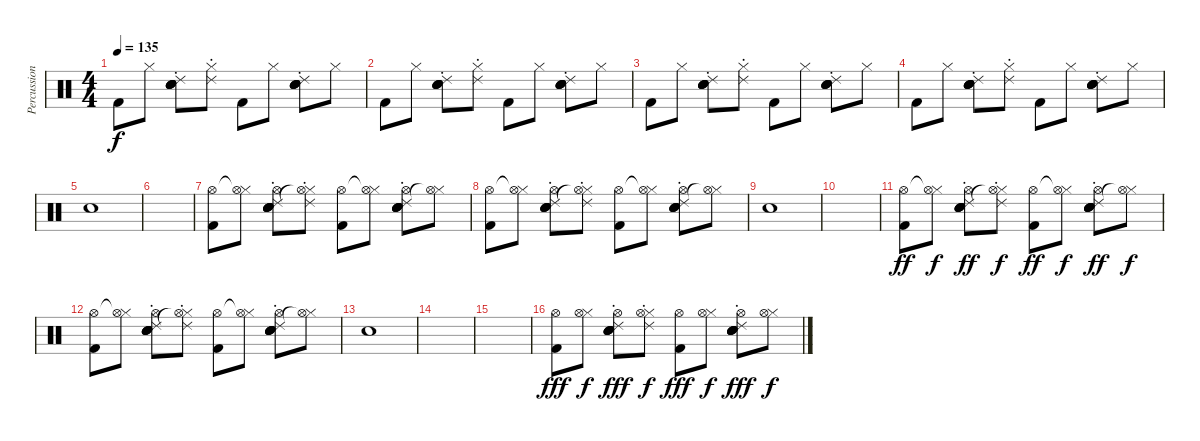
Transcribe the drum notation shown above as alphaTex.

\track ("Percussion" "Percussion") {instrument percussion}
\staff {score}
\articulation defaults
\ts (4 4)
\tempo 135
\clef neutral
\ks c "Kick (hit) 2".8{dy f} "Hi-Hat (closed)".8
("Snare (hit) 2" "Ride (choke) 2" "Hand Clap (hit)" "Hand Clap (hit)" "Hand Clap (hit)").8 ("Hi-Hat (closed)" "Ride (choke) 2").8 "Kick (hit) 2".8 "Hi-Hat (closed)".8 ("Snare (hit) 2" "Ride (choke) 2" "Hand Clap (hit)" "Hand Clap (hit)" "Hand Clap (hit)").8 "Hi-Hat (closed)".8 |
"Kick (hit) 2".8 "Hi-Hat (closed)".8 ("Snare (hit) 2" "Ride (choke) 2" "Hand Clap (hit)" "Hand Clap (hit)" "Hand Clap (hit)").8 ("Hi-Hat (closed)" "Ride (choke) 2").8 "Kick (hit) 2".8 "Hi-Hat (closed)".8 ("Snare (hit) 2" "Ride (choke) 2" "Hand Clap (hit)" "Hand Clap (hit)" "Hand Clap (hit)").8 "Hi-Hat (closed)".8 |
"Kick (hit) 2".8 "Hi-Hat (closed)".8 ("Snare (hit) 2" "Ride (choke) 2" "Hand Clap (hit)" "Hand Clap (hit)" "Hand Clap (hit)").8 ("Hi-Hat (closed)" "Ride (choke) 2").8 "Kick (hit) 2".8 "Hi-Hat (closed)".8 ("Snare (hit) 2" "Ride (choke) 2" "Hand Clap (hit)" "Hand Clap (hit)" "Hand Clap (hit)").8 "Hi-Hat (closed)".8 |
"Kick (hit) 2".8 "Hi-Hat (closed)".8 ("Snare (hit) 2" "Ride (choke) 2" "Hand Clap (hit)" "Hand Clap (hit)" "Hand Clap (hit)").8 ("Hi-Hat (closed)" "Ride (choke) 2").8 "Kick (hit) 2".8 "Hi-Hat (closed)".8 ("Snare (hit) 2" "Ride (choke) 2" "Hand Clap (hit)" "Hand Clap (hit)" "Hand Clap (hit)").8 "Hi-Hat (closed)".8 |
"Snare (hit) 2".1 |
|
("Kick (hit) 2" "Hi-Hat (open)").8 ("Hi-Hat (closed)" "Hi-Hat (open)"{t}).8 ("Snare (hit) 2" "Ride (choke) 2" "Hand Clap (hit)" "Hand Clap (hit)" "Hand Clap (hit)" "Hi-Hat (open)").8 ("Hi-Hat (closed)" "Ride (choke) 2" "Hi-Hat (open)"{t}).8 ("Kick (hit) 2" "Hi-Hat (open)").8 ("Hi-Hat (closed)" "Hi-Hat (open)"{t}).8 ("Snare (hit) 2" "Ride (choke) 2" "Hand Clap (hit)" "Hand Clap (hit)" "Hand Clap (hit)" "Hi-Hat (open)").8 ("Hi-Hat (closed)" "Hi-Hat (open)"{t}).8 |
("Kick (hit) 2" "Hi-Hat (open)").8 ("Hi-Hat (closed)" "Hi-Hat (open)"{t}).8 ("Snare (hit) 2" "Ride (choke) 2" "Hand Clap (hit)" "Hand Clap (hit)" "Hand Clap (hit)" "Hi-Hat (open)").8 ("Hi-Hat (closed)" "Ride (choke) 2" "Hi-Hat (open)"{t}).8 ("Kick (hit) 2" "Hi-Hat (open)").8 ("Hi-Hat (closed)" "Hi-Hat (open)"{t}).8 ("Snare (hit) 2" "Ride (choke) 2" "Hand Clap (hit)" "Hand Clap (hit)" "Hand Clap (hit)" "Hi-Hat (open)").8 ("Hi-Hat (closed)" "Hi-Hat (open)"{t}).8 |
"Snare (hit) 2".1 |
|
("Kick (hit) 2" "Hi-Hat (open)").8{dy ff} ("Hi-Hat (closed)" "Hi-Hat (open)"{t}).8{dy f} ("Snare (hit) 2" "Ride (choke) 2" "Hand Clap (hit)" "Hand Clap (hit)" "Hand Clap (hit)" "Hi-Hat (open)").8{dy ff} ("Hi-Hat (closed)" "Ride (choke) 2" "Hi-Hat (open)"{t}).8{dy f} ("Kick (hit) 2" "Hi-Hat (open)").8{dy ff} ("Hi-Hat (closed)" "Hi-Hat (open)"{t}).8{dy f} ("Snare (hit) 2" "Ride (choke) 2" "Hand Clap (hit)" "Hand Clap (hit)" "Hand Clap (hit)" "Hi-Hat (open)").8{dy ff} ("Hi-Hat (closed)" "Hi-Hat (open)"{t}).8{dy f} |
("Kick (hit) 2" "Hi-Hat (open)").8 ("Hi-Hat (closed)" "Hi-Hat (open)"{t}).8 ("Snare (hit) 2" "Ride (choke) 2" "Hand Clap (hit)" "Hand Clap (hit)" "Hand Clap (hit)" "Hi-Hat (open)").8 ("Hi-Hat (closed)" "Ride (choke) 2" "Hi-Hat (open)"{t}).8 ("Kick (hit) 2" "Hi-Hat (open)").8 ("Hi-Hat (closed)" "Hi-Hat (open)"{t}).8 ("Snare (hit) 2" "Ride (choke) 2" "Hand Clap (hit)" "Hand Clap (hit)" "Hand Clap (hit)" "Hi-Hat (open)").8 ("Hi-Hat (closed)" "Hi-Hat (open)"{t}).8 |
"Snare (hit) 2".1 |
|
|
("Kick (hit) 2" "Hi-Hat (open)").8{dy fff} ("Hi-Hat (closed)" "Hi-Hat (open)").8{dy f} ("Snare (hit) 2" "Ride (choke) 2" "Hand Clap (hit)" "Hand Clap (hit)" "Hand Clap (hit)" "Hi-Hat (open)").8{dy fff} ("Hi-Hat (closed)" "Ride (choke) 2" "Hi-Hat (open)").8{dy f} ("Kick (hit) 2" "Hi-Hat (open)").8{dy fff} ("Hi-Hat (closed)" "Hi-Hat (open)").8{dy f} ("Snare (hit) 2" "Ride (choke) 2" "Hand Clap (hit)" "Hand Clap (hit)" "Hand Clap (hit)" "Hi-Hat (open)").8{dy fff} ("Hi-Hat (closed)" "Hi-Hat (open)").8{dy f}
